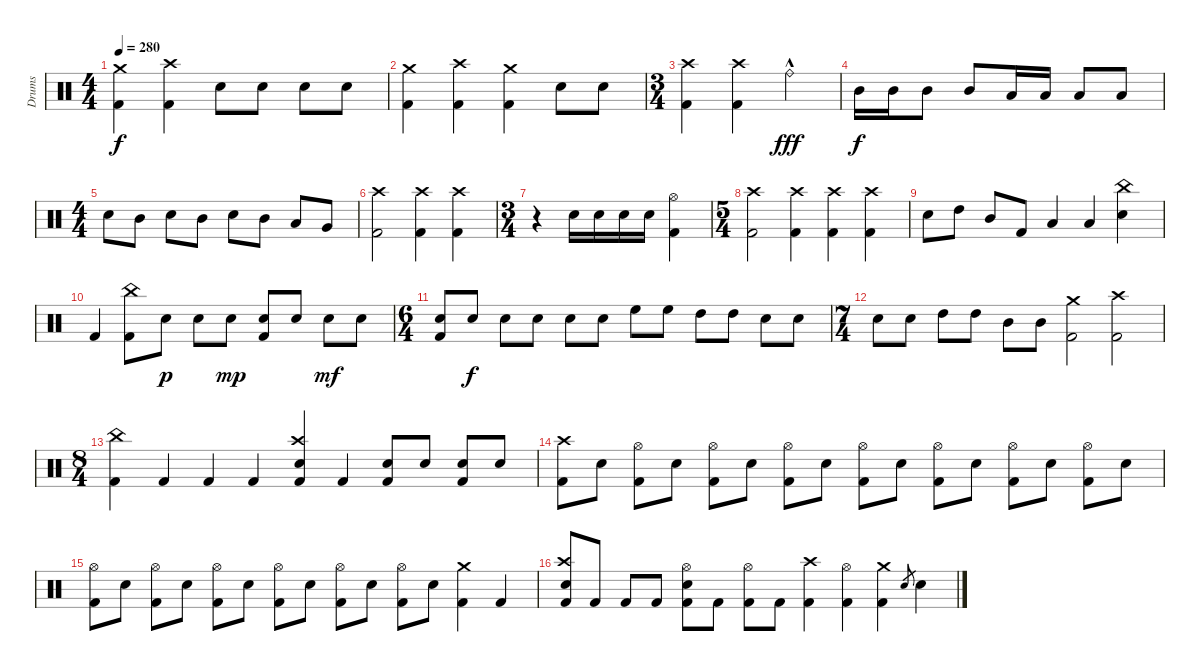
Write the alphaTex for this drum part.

\track ("Drums" "Drums") {instrument percussion}
\staff {score}
\articulation defaults
\ts (4 4)
\tempo 280
\clef neutral
\ks c
("Crash medium (hit)" "Kick (hit) 2").4{dy f} ("Crash high (hit)" "Kick (hit) 2").4 "Electric Snare (hit)".8 "Electric Snare (hit)".8 "Electric Snare (hit)".8 "Electric Snare (hit)".8 |
("Crash medium (hit)" "Kick (hit) 2").4 ("Crash high (hit)" "Kick (hit) 2").4 ("Crash medium (hit)" "Kick (hit) 2").4 "Electric Snare (hit)".8 "Electric Snare (hit)".8 |
\ts (3 4)
("Crash high (hit)" "Kick (hit) 2").4 ("Kick (hit) 2" "Crash high (hit)").4 "Ride (bell)"{hac}.4{dy fff} |
"Mid Tom (hit)".16{dy f} "Mid Tom (hit)".16 "Mid Tom (hit)".8 "Mid Tom (hit)".8 "Low Tom (hit)".16 "Low Tom (hit)".16 "Low Tom (hit)".8 "Low Tom (hit)".8 |
\ts (4 4)
"Electric Snare (hit)".8 "Mid Tom (hit)".8 "Electric Snare (hit)".8 "Mid Tom (hit)".8 "Electric Snare (hit)".8 "Mid Tom (hit)".8 "Low Tom (hit)".8 "Very Low Tom (hit)".8 |
("Crash high (hit)" "Kick (hit) 2").2 ("Crash high (hit)" "Kick (hit) 2").4 ("Kick (hit) 2" "Crash high (hit)").4 |
\ts (3 4)
r.4 "Electric Snare (hit)".16 "Electric Snare (hit)".16 "Electric Snare (hit)".16 "Electric Snare (hit)".16 ("Hi-Hat (open)" "Kick (hit) 2").4 |
\ts (5 4)
("Crash high (hit)" "Kick (hit) 2").2 ("Crash high (hit)" "Kick (hit) 2").4 ("Crash high (hit)" "Kick (hit) 2").4 ("Kick (hit) 2" "Crash high (hit)").4 |
"Electric Snare (hit)".8 "High Tom (hit)".8 "Mid Tom (hit)".8 "Kick (hit) 2".8 "Low Tom (hit)".4 "Low Tom (hit)".4 ("China (hit)" "Electric Snare (hit)").4 |
"Kick (hit) 2".4 ("Kick (hit) 2" "China (hit)").8 "Electric Snare (hit)".8{dy p} "Electric Snare (hit)".8 "Electric Snare (hit)".8{dy mp} ("Electric Snare (hit)" "Kick (hit) 2").8 "Electric Snare (hit)".8 "Electric Snare (hit)".8{dy mf} "Electric Snare (hit)".8 |
\ts (6 4)
("Electric Snare (hit)" "Kick (hit) 2").8 "Electric Snare (hit)".8{dy f} "Electric Snare (hit)".8 "Electric Snare (hit)".8 "Electric Snare (hit)".8 "Electric Snare (hit)".8 "High Floor Tom (hit)".8 "High Floor Tom (hit)".8 "High Tom (hit)".8 "High Tom (hit)".8 "Electric Snare (hit)".8 "Electric Snare (hit)".8 |
\ts (7 4)
"Electric Snare (hit)".8 "Electric Snare (hit)".8 "High Tom (hit)".8 "High Tom (hit)".8 "Mid Tom (hit)".8 "Mid Tom (hit)".8 ("Crash medium (hit)" "Kick (hit) 2").2 ("Crash high (hit)" "Kick (hit) 2").2 |
\ts (8 4)
("Kick (hit) 2" "China (hit)").4 "Kick (hit) 2".4 "Kick (hit) 2".4 "Kick (hit) 2".4 ("Kick (hit) 2" "Crash high (hit)" "Electric Snare (hit)").4 "Kick (hit) 2".4 ("Kick (hit) 2" "Electric Snare (hit)").8 "Electric Snare (hit)".8 ("Kick (hit) 2" "Electric Snare (hit)").8 "Electric Snare (hit)".8 |
("Crash high (hit)" "Kick (hit) 2").8 "Electric Snare (hit)".8 ("Hi-Hat (open)" "Kick (hit) 2").8 "Electric Snare (hit)".8 ("Hi-Hat (open)" "Kick (hit) 2").8 "Electric Snare (hit)".8 ("Hi-Hat (open)" "Kick (hit) 2").8 "Electric Snare (hit)".8 ("Hi-Hat (open)" "Kick (hit) 2").8 "Electric Snare (hit)".8 ("Hi-Hat (open)" "Kick (hit) 2").8 "Electric Snare (hit)".8 ("Hi-Hat (open)" "Kick (hit) 2").8 "Electric Snare (hit)".8 ("Hi-Hat (open)" "Kick (hit) 2").8 "Electric Snare (hit)".8 |
("Hi-Hat (open)" "Kick (hit) 2").8 "Electric Snare (hit)".8 ("Hi-Hat (open)" "Kick (hit) 2").8 "Electric Snare (hit)".8 ("Hi-Hat (open)" "Kick (hit) 2").8 "Electric Snare (hit)".8 ("Hi-Hat (open)" "Kick (hit) 2").8 "Electric Snare (hit)".8 ("Hi-Hat (open)" "Kick (hit) 2").8 "Electric Snare (hit)".8 ("Hi-Hat (open)" "Kick (hit) 2").8 "Electric Snare (hit)".8 ("Crash medium (hit)" "Kick (hit) 2").4 "Kick (hit) 2".4 |
("Kick (hit) 2" "Crash high (hit)" "Electric Snare (hit)").8 "Kick (hit) 2".8 "Kick (hit) 2".8 "Kick (hit) 2".8 ("Kick (hit) 2" "Hi-Hat (open)" "Electric Snare (hit)").8 "Kick (hit) 2".8 ("Kick (hit) 2" "Hi-Hat (open)").8 "Kick (hit) 2".8 ("Kick (hit) 2" "Crash high (hit)").4 ("Kick (hit) 2" "Hi-Hat (open)").4 ("Kick (hit) 2" "Crash medium (hit)").4 "Electric Snare (hit)".8{gr} "Electric Snare (hit)".4
